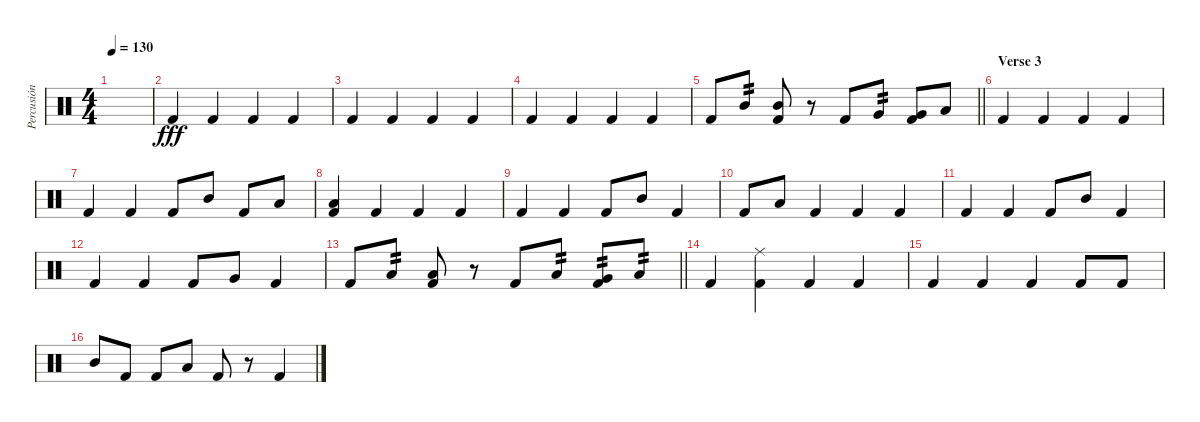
\track ("Percusión" "Percusión") {instrument percussion}
\staff {score}
\articulation defaults
\ts (4 4)
\tempo 130
\clef neutral
\ks c
|
"Kick (hit) 2".4{dy fff} "Kick (hit) 2".4 "Kick (hit) 2".4 "Kick (hit) 2".4 |
"Kick (hit) 2".4 "Kick (hit) 2".4 "Kick (hit) 2".4 "Kick (hit) 2".4 |
"Kick (hit) 2".4 "Kick (hit) 2".4 "Kick (hit) 2".4 "Kick (hit) 2".4 |
\barLineRight lightlight "Kick (hit) 2".8 "Mid Tom (hit)".8{tp 2}
("Kick (hit) 2" "Mid Tom (hit)").8 r.8 "Kick (hit) 2".8 "Very Low Tom (hit)".8{tp 2} ("Kick (hit) 2" "Very Low Tom (hit)").8 "Low Floor Tom (hit)".8 |
\section ("" "Verse 3")
"Kick (hit) 2".4 "Kick (hit) 2".4 "Kick (hit) 2".4 "Kick (hit) 2".4 |
"Kick (hit) 2".4 "Kick (hit) 2".4 "Kick (hit) 2".8 "Mid Tom (hit)".8 "Kick (hit) 2".8 "Low Tom (hit)".8 |
("Kick (hit) 2" "Low Tom (hit)").4 "Kick (hit) 2".4 "Kick (hit) 2".4 "Kick (hit) 2".4 |
"Kick (hit) 2".4 "Kick (hit) 2".4 "Kick (hit) 2".8 "Mid Tom (hit)".8 "Kick (hit) 2".4 |
"Kick (hit) 2".8 "Low Tom (hit)".8 "Kick (hit) 2".4 "Kick (hit) 2".4 "Kick (hit) 2".4 |
"Kick (hit) 2".4 "Kick (hit) 2".4 "Kick (hit) 2".8 "Mid Tom (hit)".8 "Kick (hit) 2".4 |
"Kick (hit) 2".4 "Kick (hit) 2".4 "Kick (hit) 2".8 "Very Low Tom (hit)".8 "Kick (hit) 2".4 |
\barLineRight lightlight "Kick (hit) 2".8 "Low Tom (hit)".8{tp 2}
("Kick (hit) 2" "Low Tom (hit)").8 r.8 "Kick (hit) 2".8 "Low Tom (hit)".8{tp 2} ("Kick (hit) 2" "Very Low Tom (hit)").8{tp 2} "Low Floor Tom (hit)".8{tp 2} |
"Kick (hit) 2".4 ("Kick (hit) 2" "Ride (middle)").4 "Kick (hit) 2".4 "Kick (hit) 2".4 |
"Kick (hit) 2".4 "Kick (hit) 2".4 "Kick (hit) 2".4 "Kick (hit) 2".8 "Kick (hit) 2".8 |
"Mid Tom (hit)".8 "Kick (hit) 2".8 "Kick (hit) 2".8 "Low Tom (hit)".8 "Kick (hit) 2".8 r.8 "Kick (hit) 2".4
